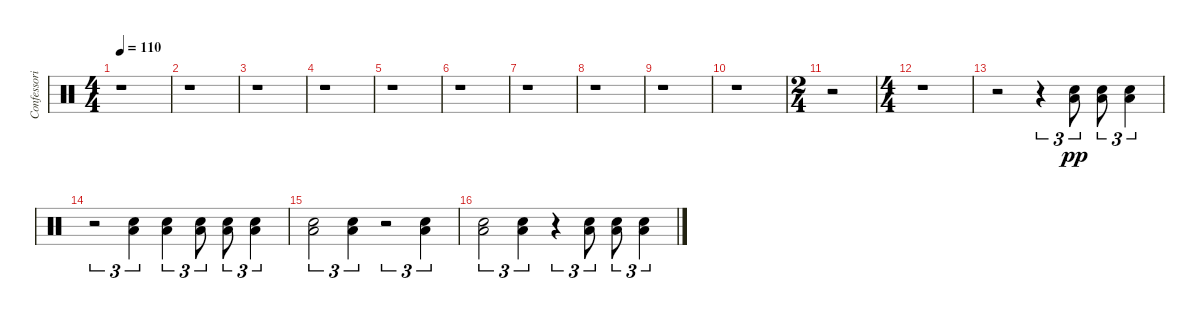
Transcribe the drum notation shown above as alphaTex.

\track ("Confessori" "Confessori") {instrument percussion}
\staff {score}
\articulation defaults
\ts (4 4)
\tempo 110
\clef neutral
\ks c
r.1{dy pp} |
r.1 |
r.1 |
r.1 |
r.1 |
r.1 |
r.1 |
r.1 |
r.1 |
r.1 |
\ts (2 4)
r.2 |
\ts (4 4)
r.1 |
r.2 r.4{tu (3 2)} ("Low Tom (hit)" "Electric Snare (hit)").8{tu (3 2)} ("Low Tom (hit)" "Electric Snare (hit)").8{tu (3 2)} ("Low Tom (hit)" "Electric Snare (hit)").4{tu (3 2)} |
r.2{tu (3 2)} ("Low Tom (hit)" "Electric Snare (hit)").4{tu (3 2)} ("Low Tom (hit)" "Electric Snare (hit)").4{tu (3 2)} ("Low Tom (hit)" "Electric Snare (hit)").8{tu (3 2)} ("Low Tom (hit)" "Electric Snare (hit)").8{tu (3 2)} ("Low Tom (hit)" "Electric Snare (hit)").4{tu (3 2)} |
("Low Tom (hit)" "Electric Snare (hit)").2{tu (3 2)} ("Low Tom (hit)" "Electric Snare (hit)").4{tu (3 2)} r.2{tu (3 2)} ("Low Tom (hit)" "Electric Snare (hit)").4{tu (3 2)} |
("Low Tom (hit)" "Electric Snare (hit)").2{tu (3 2)} ("Low Tom (hit)" "Electric Snare (hit)").4{tu (3 2)} r.4{tu (3 2)} ("Low Tom (hit)" "Electric Snare (hit)").8{tu (3 2)} ("Low Tom (hit)" "Electric Snare (hit)").8{tu (3 2)} ("Low Tom (hit)" "Electric Snare (hit)").4{tu (3 2)}
